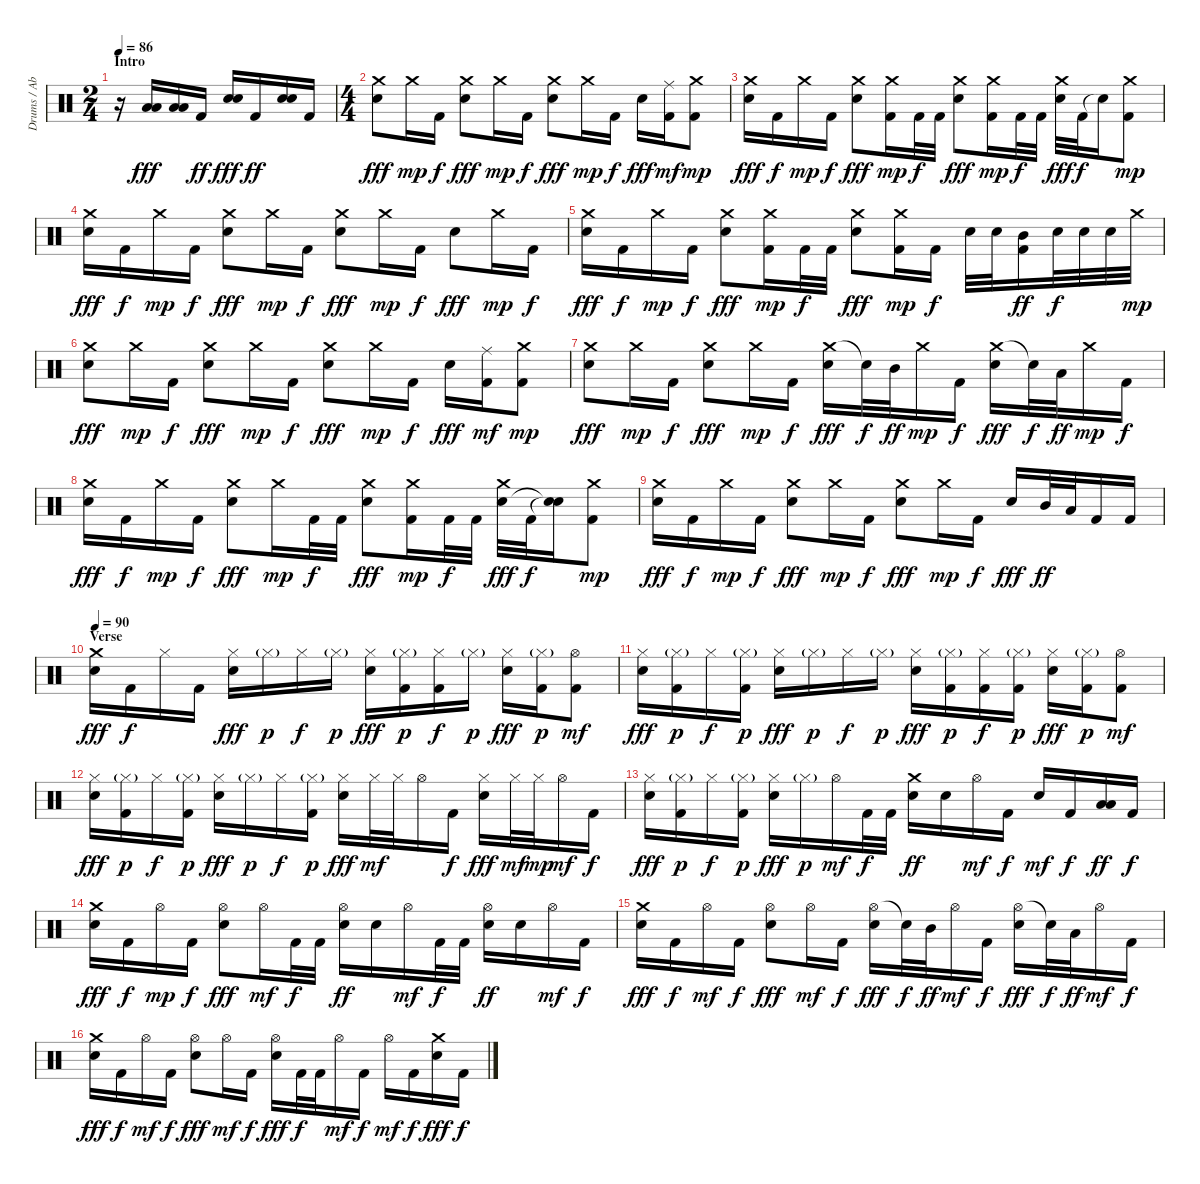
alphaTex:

\track ("Drums / Abe Cunningham" "Drums / Ab") {instrument percussion}
\staff {score}
\articulation defaults
\ts (2 4)
\section ("" "Intro")
\tempo 86
\clef neutral
\ks c
r.16{dy fff} ("Low Tom (hit)" "Low Floor Tom (hit)").16{bd 30} ("Low Tom (hit)" "Low Floor Tom (hit)").16{bd 30} "Kick (hit) 2".16{dy ff} ("Electric Snare (hit)" "Electric Snare (hit)").16{bd 60 dy fff} "Kick (hit) 2".16{dy ff} ("Electric Snare (hit)" "Electric Snare (hit)").16{bd 60} "Kick (hit) 2".16 |
\ts (4 4)
("Crash medium (hit)" "Electric Snare (hit)").8{dy fff} "Crash medium (hit)".16{dy mp} "Kick (hit) 2".16{dy f} ("Crash medium (hit)" "Electric Snare (hit)").8{dy fff} "Crash medium (hit)".16{dy mp} "Kick (hit) 2".16{dy f} ("Crash medium (hit)" "Electric Snare (hit)").8{dy fff} "Crash medium (hit)".16{dy mp} "Kick (hit) 2".16{dy f} "Electric Snare (hit)".16{dy fff} ("Ride (middle)" "Kick (hit) 2").16{dy mf} ("Crash medium (hit)" "Kick (hit) 2").8{dy mp} |
("Crash medium (hit)" "Electric Snare (hit)").16{dy fff} "Kick (hit) 2".16{dy f} "Crash medium (hit)".16{dy mp} "Kick (hit) 2".16{dy f} ("Crash medium (hit)" "Electric Snare (hit)").8{dy fff} ("Crash medium (hit)" "Kick (hit) 2").16{dy mp} "Kick (hit) 2".32{dy f} "Kick (hit) 2".32 ("Crash medium (hit)" "Electric Snare (hit)").8{dy fff} ("Crash medium (hit)" "Kick (hit) 2").16{dy mp} "Kick (hit) 2".32{dy f} "Kick (hit) 2".32 ("Crash medium (hit)" "Electric Snare (hit)").32{dy fff} "Kick (hit) 2".32{dy f} "Snare (hit)"{t}.16 ("Crash medium (hit)" "Kick (hit) 2").8{dy mp} |
("Crash medium (hit)" "Electric Snare (hit)").16{dy fff} "Kick (hit) 2".16{dy f} "Crash medium (hit)".16{dy mp} "Kick (hit) 2".16{dy f} ("Crash medium (hit)" "Electric Snare (hit)").8{dy fff} "Crash medium (hit)".16{dy mp} "Kick (hit) 2".16{dy f} ("Crash medium (hit)" "Electric Snare (hit)").8{dy fff} "Crash medium (hit)".16{dy mp} "Kick (hit) 2".16{dy f} "Electric Snare (hit)".8{dy fff} "Crash medium (hit)".16{dy mp} "Kick (hit) 2".16{dy f} |
("Crash medium (hit)" "Electric Snare (hit)").16{dy fff} "Kick (hit) 2".16{dy f} "Crash medium (hit)".16{dy mp} "Kick (hit) 2".16{dy f} ("Crash medium (hit)" "Electric Snare (hit)").8{dy fff} ("Crash medium (hit)" "Kick (hit) 2").16{dy mp} "Kick (hit) 2".32{dy f} "Kick (hit) 2".32 ("Crash medium (hit)" "Electric Snare (hit)").8{dy fff} ("Crash medium (hit)" "Kick (hit) 2").16{dy mp} "Kick (hit) 2".16{dy f} "Electric Snare (hit)".32 "Electric Snare (hit)".32 ("Mid Tom (hit)" "Kick (hit) 2").16{dy ff} "Electric Snare (hit)".32{dy f} "Electric Snare (hit)".32 "Electric Snare (hit)".32 "Crash medium (hit)".32{dy mp} |
("Crash medium (hit)" "Electric Snare (hit)").8{dy fff} "Crash medium (hit)".16{dy mp} "Kick (hit) 2".16{dy f} ("Crash medium (hit)" "Electric Snare (hit)").8{dy fff} "Crash medium (hit)".16{dy mp} "Kick (hit) 2".16{dy f} ("Crash medium (hit)" "Electric Snare (hit)").8{dy fff} "Crash medium (hit)".16{dy mp} "Kick (hit) 2".16{dy f} "Electric Snare (hit)".16{dy fff} ("Ride (middle)" "Kick (hit) 2").16{dy mf} ("Crash medium (hit)" "Kick (hit) 2").8{dy mp} |
("Crash medium (hit)" "Electric Snare (hit)").8{dy fff} "Crash medium (hit)".16{dy mp} "Kick (hit) 2".16{dy f} ("Crash medium (hit)" "Electric Snare (hit)").8{dy fff} "Crash medium (hit)".16{dy mp} "Kick (hit) 2".16{dy f} ("Crash medium (hit)" "Electric Snare (hit)").16{dy fff} "Snare (hit)"{t}.32{dy f} "Mid Tom (hit)".32{dy ff} "Crash medium (hit)".16{dy mp} "Kick (hit) 2".16{dy f} ("Crash medium (hit)" "Electric Snare (hit)").16{dy fff} "Snare (hit)"{t}.32{dy f} "Low Floor Tom (hit)".32{dy ff} "Crash medium (hit)".16{dy mp} "Kick (hit) 2".16{dy f} |
("Crash medium (hit)" "Electric Snare (hit)").16{dy fff} "Kick (hit) 2".16{dy f} "Crash medium (hit)".16{dy mp} "Kick (hit) 2".16{dy f} ("Crash medium (hit)" "Electric Snare (hit)").8{dy fff} "Crash medium (hit)".16{dy mp} "Kick (hit) 2".32{dy f} "Kick (hit) 2".32 ("Crash medium (hit)" "Electric Snare (hit)").8{dy fff} ("Crash medium (hit)" "Kick (hit) 2").16{dy mp} "Kick (hit) 2".32{dy f} "Kick (hit) 2".32 ("Crash medium (hit)" "Electric Snare (hit)").32{dy fff} "Kick (hit) 2".32{dy f} ("Snare (hit)"{t} "Snare (hit)"{t}).16 ("Crash medium (hit)" "Kick (hit) 2").8{dy mp} |
("Crash medium (hit)" "Electric Snare (hit)").16{dy fff} "Kick (hit) 2".16{dy f} "Crash medium (hit)".16{dy mp} "Kick (hit) 2".16{dy f} ("Crash medium (hit)" "Electric Snare (hit)").8{dy fff} "Crash medium (hit)".16{dy mp} "Kick (hit) 2".16{dy f} ("Crash medium (hit)" "Electric Snare (hit)").8{dy fff} "Crash medium (hit)".16{dy mp} "Kick (hit) 2".16{dy f} "Electric Snare (hit)".16{dy fff} "Mid Tom (hit)".32{dy ff} "Low Floor Tom (hit)".32 "Kick (hit) 2".16 "Kick (hit) 2".16 |
\section ("" "Verse")
\tempo 90
("Crash medium (hit)" "Electric Snare (hit)").16{dy fff} "Kick (hit) 2".16{dy f} "Hi-Hat (closed)".16 "Kick (hit) 2".16 ("Hi-Hat (closed)" "Electric Snare (hit)").16{dy fff} "Hi-Hat (closed)"{g}.16{dy p} "Hi-Hat (closed)".16{dy f} "Hi-Hat (closed)"{g}.16{dy p} ("Hi-Hat (closed)" "Electric Snare (hit)").16{dy fff} ("Hi-Hat (closed)"{g} "Kick (hit) 2").16{dy p} ("Hi-Hat (closed)" "Kick (hit) 2").16{dy f} "Hi-Hat (closed)"{g}.16{dy p} ("Hi-Hat (closed)" "Electric Snare (hit)").16{dy fff} ("Hi-Hat (closed)"{g} "Kick (hit) 2").16{dy p} ("Hi-Hat (open)" "Kick (hit) 2").8{dy mf} |
("Hi-Hat (closed)" "Electric Snare (hit)").16{dy fff} ("Hi-Hat (closed)"{g} "Kick (hit) 2").16{dy p} "Hi-Hat (closed)".16{dy f} ("Hi-Hat (closed)"{g} "Kick (hit) 2").16{dy p} ("Hi-Hat (closed)" "Electric Snare (hit)").16{dy fff} "Hi-Hat (closed)"{g}.16{dy p} "Hi-Hat (closed)".16{dy f} "Hi-Hat (closed)"{g}.16{dy p} ("Hi-Hat (closed)" "Electric Snare (hit)").16{dy fff} ("Hi-Hat (closed)"{g} "Kick (hit) 2").16{dy p} ("Hi-Hat (closed)" "Kick (hit) 2").16{dy f} ("Hi-Hat (closed)"{g} "Kick (hit) 2").16{dy p} ("Hi-Hat (closed)" "Electric Snare (hit)").16{dy fff} ("Hi-Hat (closed)"{g} "Kick (hit) 2").16{dy p} ("Hi-Hat (open)" "Kick (hit) 2").8{dy mf} |
("Hi-Hat (closed)" "Electric Snare (hit)").16{dy fff} ("Hi-Hat (closed)"{g} "Kick (hit) 2").16{dy p} "Hi-Hat (closed)".16{dy f} ("Hi-Hat (closed)"{g} "Kick (hit) 2").16{dy p} ("Hi-Hat (closed)" "Electric Snare (hit)").16{dy fff} "Hi-Hat (closed)"{g}.16{dy p} "Hi-Hat (closed)".16{dy f} ("Hi-Hat (closed)"{g} "Kick (hit) 2").16{dy p} ("Hi-Hat (closed)" "Electric Snare (hit)").16{dy fff} "Hi-Hat (closed)".32{dy mf} "Hi-Hat (closed)".32 "Hi-Hat (open)".16 "Kick (hit) 2".16{dy f} ("Hi-Hat (closed)" "Electric Snare (hit)").16{dy fff} "Hi-Hat (closed)".32{dy mf} "Hi-Hat (closed)".32{dy mp} "Hi-Hat (open)".16{dy mf} "Kick (hit) 2".16{dy f} |
("Hi-Hat (closed)" "Electric Snare (hit)").16{dy fff} ("Hi-Hat (closed)"{g} "Kick (hit) 2").16{dy p} "Hi-Hat (closed)".16{dy f} ("Hi-Hat (closed)"{g} "Kick (hit) 2").16{dy p} ("Hi-Hat (closed)" "Electric Snare (hit)").16{dy fff} "Hi-Hat (closed)"{g}.16{dy p} "Hi-Hat (open)".16{dy mf} "Kick (hit) 2".32{dy f} "Kick (hit) 2".32 ("Crash medium (hit)" "Electric Snare (hit)").16{dy ff} "Electric Snare (hit)".16 "Hi-Hat (open)".16{dy mf} "Kick (hit) 2".16{dy f} "Electric Snare (hit)".16{dy mf} "Kick (hit) 2".16{dy f} ("Low Tom (hit)" "Low Floor Tom (hit)").16{bd 30 dy ff} "Kick (hit) 2".16{dy f} |
("Crash medium (hit)" "Electric Snare (hit)").16{dy fff} "Kick (hit) 2".16{dy f} "Hi-Hat (open)".16{dy mp} "Kick (hit) 2".16{dy f} ("Hi-Hat (open)" "Electric Snare (hit)").8{dy fff} "Hi-Hat (open)".16{dy mf} "Kick (hit) 2".32{dy f} "Kick (hit) 2".32 ("Hi-Hat (open)" "Electric Snare (hit)").16{dy ff} "Electric Snare (hit)".16 "Hi-Hat (open)".16{dy mf} "Kick (hit) 2".32{dy f} "Kick (hit) 2".32 ("Hi-Hat (open)" "Electric Snare (hit)").16{dy ff} "Electric Snare (hit)".16 "Hi-Hat (open)".16{dy mf} "Kick (hit) 2".16{dy f} |
("Crash medium (hit)" "Electric Snare (hit)").16{dy fff} "Kick (hit) 2".16{dy f} "Hi-Hat (open)".16{dy mf} "Kick (hit) 2".16{dy f} ("Hi-Hat (open)" "Electric Snare (hit)").8{dy fff} "Hi-Hat (open)".16{dy mf} "Kick (hit) 2".16{dy f} ("Hi-Hat (open)" "Electric Snare (hit)").16{dy fff} "Snare (hit)"{t}.32{dy f} "Mid Tom (hit)".32{dy ff} "Hi-Hat (open)".16{dy mf} "Kick (hit) 2".16{dy f} ("Hi-Hat (open)" "Electric Snare (hit)").16{dy fff} "Snare (hit)"{t}.32{dy f} "Low Floor Tom (hit)".32{dy ff} "Hi-Hat (open)".16{dy mf} "Kick (hit) 2".16{dy f} |
("Crash medium (hit)" "Electric Snare (hit)").16{dy fff} "Kick (hit) 2".16{dy f} "Hi-Hat (open)".16{dy mf} "Kick (hit) 2".16{dy f} ("Hi-Hat (open)" "Electric Snare (hit)").8{dy fff} "Hi-Hat (open)".16{dy mf} "Kick (hit) 2".16{dy f} ("Hi-Hat (open)" "Electric Snare (hit)").16{dy fff} "Kick (hit) 2".32{dy f} "Kick (hit) 2".32 "Hi-Hat (open)".16{dy mf} "Kick (hit) 2".16{dy f} "Hi-Hat (open)".16{dy mf} "Kick (hit) 2".16{dy f} ("Crash medium (hit)" "Electric Snare (hit)").16{dy fff} "Kick (hit) 2".16{dy f}
